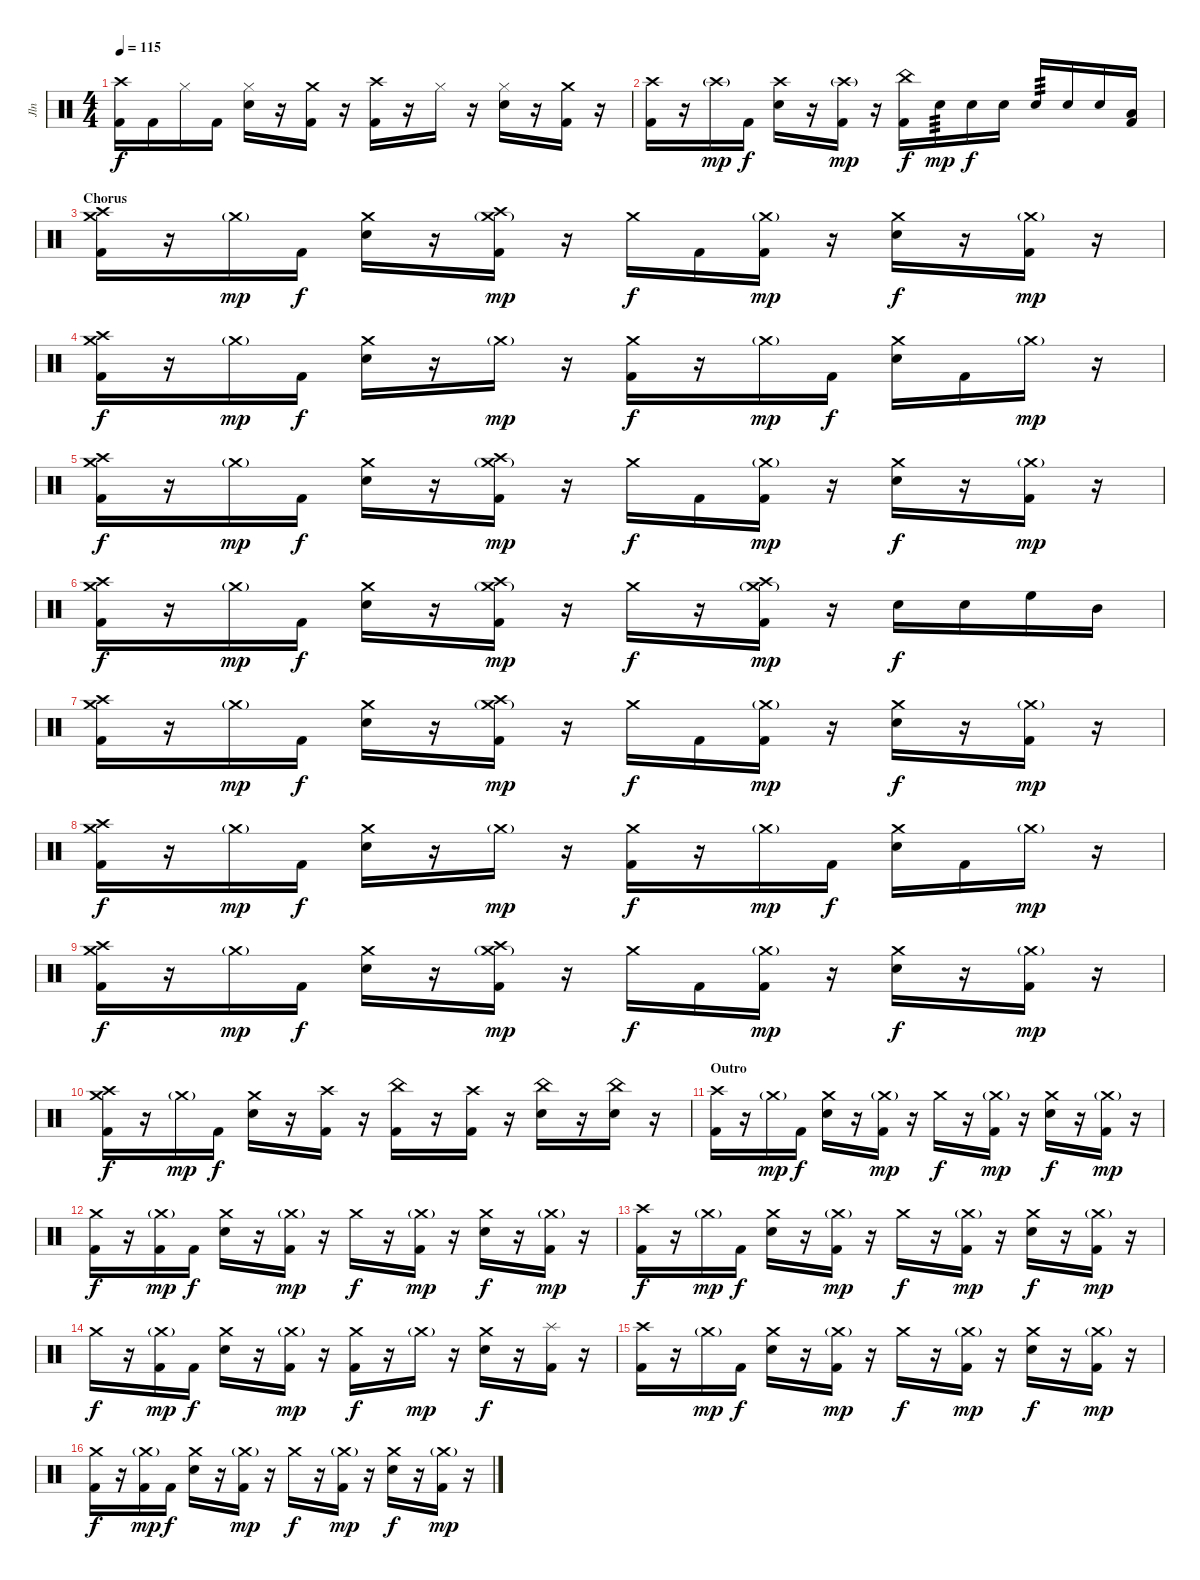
\track ("Jln" "Jln") {instrument percussion}
\staff {score}
\articulation defaults
\ts (4 4)
\tempo 115
\clef neutral
\ks c
("Crash high (hit)" "Kick (hit) 2").16{dy f} "Kick (hit) 2".16 "Hi-Hat (closed)".16 "Kick (hit) 2".16 ("Hi-Hat (closed)" "Electric Snare (hit)").16 r.16 ("Crash medium (hit)" "Kick (hit) 2").16 r.16 ("Crash high (hit)" "Kick (hit) 2").16 r.16 "Hi-Hat (closed)".16 r.16 ("Hi-Hat (closed)" "Electric Snare (hit)").16 r.16 ("Crash medium (hit)" "Kick (hit) 2").16 r.16 |
("Crash high (hit)" "Kick (hit) 2").16 r.16 "Crash high (hit)"{g}.16{dy mp} "Kick (hit) 2".16{dy f} ("Crash high (hit)" "Electric Snare (hit)").16 r.16 ("Crash high (hit)"{g} "Kick (hit) 2").16{dy mp} r.16 ("China (hit)" "Kick (hit) 2").16{dy f} "Electric Snare (hit)".16{tp 3 dy mp} "Electric Snare (hit)".16{dy f} "Electric Snare (hit)".16 "Electric Snare (hit)".16{tp 3} "Electric Snare (hit)".16 "Electric Snare (hit)".16 ("Low Tom (hit)" "Kick (hit) 2").16 |
\section ("" "Chorus")
("Crash medium (hit)" "Crash high (hit)" "Kick (hit) 2").16 r.16 "Crash medium (hit)"{g}.16{dy mp} "Kick (hit) 2".16{dy f} ("Crash medium (hit)" "Electric Snare (hit)").16 r.16 ("Crash medium (hit)"{g} "Crash high (hit)" "Kick (hit) 2").16{dy mp} r.16 "Crash medium (hit)".16{dy f} "Kick (hit) 2".16 ("Crash medium (hit)"{g} "Kick (hit) 2").16{dy mp} r.16 ("Crash medium (hit)" "Electric Snare (hit)").16{dy f} r.16 ("Crash medium (hit)"{g} "Kick (hit) 2").16{dy mp} r.16 |
("Crash medium (hit)" "Crash high (hit)" "Kick (hit) 2").16{dy f} r.16 "Crash medium (hit)"{g}.16{dy mp} "Kick (hit) 2".16{dy f} ("Crash medium (hit)" "Electric Snare (hit)").16 r.16 "Crash medium (hit)"{g}.16{dy mp} r.16 ("Crash medium (hit)" "Kick (hit) 2").16{dy f} r.16 "Crash medium (hit)"{g}.16{dy mp} "Kick (hit) 2".16{dy f} ("Crash medium (hit)" "Electric Snare (hit)").16 "Kick (hit) 2".16 "Crash medium (hit)"{g}.16{dy mp} r.16 |
("Crash medium (hit)" "Crash high (hit)" "Kick (hit) 2").16{dy f} r.16 "Crash medium (hit)"{g}.16{dy mp} "Kick (hit) 2".16{dy f} ("Crash medium (hit)" "Electric Snare (hit)").16 r.16 ("Crash medium (hit)"{g} "Crash high (hit)" "Kick (hit) 2").16{dy mp} r.16 "Crash medium (hit)".16{dy f} "Kick (hit) 2".16 ("Crash medium (hit)"{g} "Kick (hit) 2").16{dy mp} r.16 ("Crash medium (hit)" "Electric Snare (hit)").16{dy f} r.16 ("Crash medium (hit)"{g} "Kick (hit) 2").16{dy mp} r.16 |
("Crash medium (hit)" "Crash high (hit)" "Kick (hit) 2").16{dy f} r.16 "Crash medium (hit)"{g}.16{dy mp} "Kick (hit) 2".16{dy f} ("Crash medium (hit)" "Electric Snare (hit)").16 r.16 ("Crash medium (hit)"{g} "Crash high (hit)" "Kick (hit) 2").16{dy mp} r.16 "Crash medium (hit)".16{dy f} r.16 ("Crash medium (hit)"{g} "Crash high (hit)" "Kick (hit) 2").16{dy mp} r.16 "Electric Snare (hit)".16{dy f} "Electric Snare (hit)".16 "High Floor Tom (hit)".16 "Mid Tom (hit)".16 |
("Crash medium (hit)" "Crash high (hit)" "Kick (hit) 2").16 r.16 "Crash medium (hit)"{g}.16{dy mp} "Kick (hit) 2".16{dy f} ("Crash medium (hit)" "Electric Snare (hit)").16 r.16 ("Crash medium (hit)"{g} "Crash high (hit)" "Kick (hit) 2").16{dy mp} r.16 "Crash medium (hit)".16{dy f} "Kick (hit) 2".16 ("Crash medium (hit)"{g} "Kick (hit) 2").16{dy mp} r.16 ("Crash medium (hit)" "Electric Snare (hit)").16{dy f} r.16 ("Crash medium (hit)"{g} "Kick (hit) 2").16{dy mp} r.16 |
("Crash medium (hit)" "Crash high (hit)" "Kick (hit) 2").16{dy f} r.16 "Crash medium (hit)"{g}.16{dy mp} "Kick (hit) 2".16{dy f} ("Crash medium (hit)" "Electric Snare (hit)").16 r.16 "Crash medium (hit)"{g}.16{dy mp} r.16 ("Crash medium (hit)" "Kick (hit) 2").16{dy f} r.16 "Crash medium (hit)"{g}.16{dy mp} "Kick (hit) 2".16{dy f} ("Crash medium (hit)" "Electric Snare (hit)").16 "Kick (hit) 2".16 "Crash medium (hit)"{g}.16{dy mp} r.16 |
("Crash medium (hit)" "Crash high (hit)" "Kick (hit) 2").16{dy f} r.16 "Crash medium (hit)"{g}.16{dy mp} "Kick (hit) 2".16{dy f} ("Crash medium (hit)" "Electric Snare (hit)").16 r.16 ("Crash medium (hit)"{g} "Crash high (hit)" "Kick (hit) 2").16{dy mp} r.16 "Crash medium (hit)".16{dy f} "Kick (hit) 2".16 ("Crash medium (hit)"{g} "Kick (hit) 2").16{dy mp} r.16 ("Crash medium (hit)" "Electric Snare (hit)").16{dy f} r.16 ("Crash medium (hit)"{g} "Kick (hit) 2").16{dy mp} r.16 |
("Crash medium (hit)" "Crash high (hit)" "Kick (hit) 2").16{dy f} r.16 "Crash medium (hit)"{g}.16{dy mp} "Kick (hit) 2".16{dy f} ("Crash medium (hit)" "Electric Snare (hit)").16 r.16 ("Crash high (hit)" "Kick (hit) 2").16 r.16 ("China (hit)" "Kick (hit) 2").16 r.16 ("Crash high (hit)" "Kick (hit) 2").16 r.16 ("China (hit)" "Electric Snare (hit)").16 r.16 ("China (hit)" "Electric Snare (hit)").16 r.16 |
\section ("" "Outro")
("Crash high (hit)" "Kick (hit) 2").16 r.16 "Crash medium (hit)"{g}.16{dy mp} "Kick (hit) 2".16{dy f} ("Crash medium (hit)" "Electric Snare (hit)").16 r.16 ("Crash medium (hit)"{g} "Kick (hit) 2").16{dy mp} r.16 "Crash medium (hit)".16{dy f} r.16 ("Crash medium (hit)"{g} "Kick (hit) 2").16{dy mp} r.16 ("Crash medium (hit)" "Electric Snare (hit)").16{dy f} r.16 ("Crash medium (hit)"{g} "Kick (hit) 2").16{dy mp} r.16 |
("Crash medium (hit)" "Kick (hit) 2").16{dy f} r.16 ("Crash medium (hit)"{g} "Kick (hit) 2").16{dy mp} "Kick (hit) 2".16{dy f} ("Crash medium (hit)" "Electric Snare (hit)").16 r.16 ("Crash medium (hit)"{g} "Kick (hit) 2").16{dy mp} r.16 "Crash medium (hit)".16{dy f} r.16 ("Crash medium (hit)"{g} "Kick (hit) 2").16{dy mp} r.16 ("Crash medium (hit)" "Electric Snare (hit)").16{dy f} r.16 ("Crash medium (hit)"{g} "Kick (hit) 2").16{dy mp} r.16 |
("Crash high (hit)" "Kick (hit) 2").16{dy f} r.16 "Crash medium (hit)"{g}.16{dy mp} "Kick (hit) 2".16{dy f} ("Crash medium (hit)" "Electric Snare (hit)").16 r.16 ("Crash medium (hit)"{g} "Kick (hit) 2").16{dy mp} r.16 "Crash medium (hit)".16{dy f} r.16 ("Crash medium (hit)"{g} "Kick (hit) 2").16{dy mp} r.16 ("Crash medium (hit)" "Electric Snare (hit)").16{dy f} r.16 ("Crash medium (hit)"{g} "Kick (hit) 2").16{dy mp} r.16 |
"Crash medium (hit)".16{dy f} r.16 ("Crash medium (hit)"{g} "Kick (hit) 2").16{dy mp} "Kick (hit) 2".16{dy f} ("Crash medium (hit)" "Electric Snare (hit)").16 r.16 ("Crash medium (hit)"{g} "Kick (hit) 2").16{dy mp} r.16 ("Crash medium (hit)" "Kick (hit) 2").16{dy f} r.16 "Crash medium (hit)"{g}.16{dy mp} r.16 ("Crash medium (hit)" "Electric Snare (hit)").16{dy f} r.16 ("Splash (hit)" "Kick (hit) 2").16 r.16 |
("Crash high (hit)" "Kick (hit) 2").16 r.16 "Crash medium (hit)"{g}.16{dy mp} "Kick (hit) 2".16{dy f} ("Crash medium (hit)" "Electric Snare (hit)").16 r.16 ("Crash medium (hit)"{g} "Kick (hit) 2").16{dy mp} r.16 "Crash medium (hit)".16{dy f} r.16 ("Crash medium (hit)"{g} "Kick (hit) 2").16{dy mp} r.16 ("Crash medium (hit)" "Electric Snare (hit)").16{dy f} r.16 ("Crash medium (hit)"{g} "Kick (hit) 2").16{dy mp} r.16 |
("Crash medium (hit)" "Kick (hit) 2").16{dy f} r.16 ("Crash medium (hit)"{g} "Kick (hit) 2").16{dy mp} "Kick (hit) 2".16{dy f} ("Crash medium (hit)" "Electric Snare (hit)").16 r.16 ("Crash medium (hit)"{g} "Kick (hit) 2").16{dy mp} r.16 "Crash medium (hit)".16{dy f} r.16 ("Crash medium (hit)"{g} "Kick (hit) 2").16{dy mp} r.16 ("Crash medium (hit)" "Electric Snare (hit)").16{dy f} r.16 ("Crash medium (hit)"{g} "Kick (hit) 2").16{dy mp} r.16
